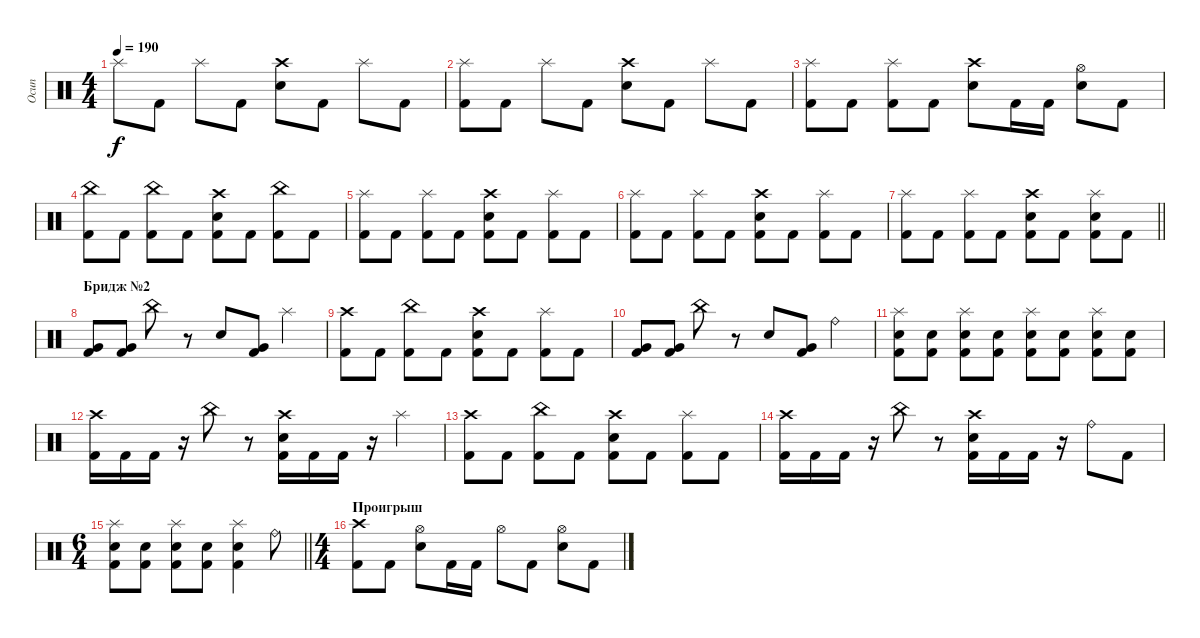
\track ("Осип" "Осип") {instrument percussion}
\staff {score}
\articulation defaults
\ts (4 4)
\tempo 190
\clef neutral
\ks c "Splash (hit)".8{dy f} "Kick (hit) 2".8 "Splash (hit)".8 "Kick (hit) 2".8
("Electric Snare (hit)" "Crash high (hit)").8 "Kick (hit) 2".8 "Splash (hit)".8 "Kick (hit) 2".8 |
("Kick (hit) 2" "Splash (hit)").8 "Kick (hit) 2".8 "Splash (hit)".8 "Kick (hit) 2".8 ("Electric Snare (hit)" "Crash high (hit)").8 "Kick (hit) 2".8 "Splash (hit)".8 "Kick (hit) 2".8 |
("Kick (hit) 2" "Splash (hit)").8 "Kick (hit) 2".8 ("Kick (hit) 2" "Splash (hit)").8 "Kick (hit) 2".8 ("Electric Snare (hit)" "Crash high (hit)").8 "Kick (hit) 2".16 "Kick (hit) 2".16 ("Electric Snare (hit)" "Hi-Hat (open)").8 "Kick (hit) 2".8 |
("Kick (hit) 2" "China (hit)").8 "Kick (hit) 2".8 ("Kick (hit) 2" "China (hit)").8 "Kick (hit) 2".8 ("Kick (hit) 2" "Electric Snare (hit)" "Crash high (hit)").8 "Kick (hit) 2".8 ("Kick (hit) 2" "China (hit)").8 "Kick (hit) 2".8 |
("Kick (hit) 2" "Splash (hit)").8 "Kick (hit) 2".8 ("Kick (hit) 2" "Splash (hit)").8 "Kick (hit) 2".8 ("Kick (hit) 2" "Electric Snare (hit)" "Crash high (hit)").8 "Kick (hit) 2".8 ("Kick (hit) 2" "Splash (hit)").8 "Kick (hit) 2".8 |
("Kick (hit) 2" "Splash (hit)").8 "Kick (hit) 2".8 ("Kick (hit) 2" "Splash (hit)").8 "Kick (hit) 2".8 ("Kick (hit) 2" "Electric Snare (hit)" "Crash high (hit)").8 "Kick (hit) 2".8 ("Kick (hit) 2" "Splash (hit)").8 "Kick (hit) 2".8 |
\barLineRight lightlight
("Kick (hit) 2" "Splash (hit)").8 "Kick (hit) 2".8 ("Kick (hit) 2" "Splash (hit)").8 "Kick (hit) 2".8 ("Kick (hit) 2" "Electric Snare (hit)" "Crash high (hit)").8 "Kick (hit) 2".8 ("Kick (hit) 2" "Electric Snare (hit)" "Splash (hit)").8 "Kick (hit) 2".8 |
\section ("" "Бридж №2")
("Kick (hit) 2" "Very Low Tom (hit)").8 ("Kick (hit) 2" "Very Low Tom (hit)").8 "China (hit)".8 r.8 "Electric Snare (hit)".8 ("Kick (hit) 2" "Very Low Tom (hit)").8 "Splash (hit)".4 |
("Kick (hit) 2" "Crash high (hit)").8 "Kick (hit) 2".8 ("Kick (hit) 2" "China (hit)").8 "Kick (hit) 2".8 ("Kick (hit) 2" "Electric Snare (hit)" "Crash high (hit)").8 "Kick (hit) 2".8 ("Kick (hit) 2" "Splash (hit)").8 "Kick (hit) 2".8 |
("Kick (hit) 2" "Very Low Tom (hit)").8 ("Kick (hit) 2" "Very Low Tom (hit)").8 "China (hit)".8 r.8 "Electric Snare (hit)".8 ("Kick (hit) 2" "Very Low Tom (hit)").8 "Ride (bell)".4 |
("Kick (hit) 2" "Electric Snare (hit)" "Splash (hit)").8 ("Kick (hit) 2" "Electric Snare (hit)").8 ("Kick (hit) 2" "Electric Snare (hit)" "Splash (hit)").8 ("Kick (hit) 2" "Electric Snare (hit)").8 ("Kick (hit) 2" "Electric Snare (hit)" "Splash (hit)").8 ("Kick (hit) 2" "Electric Snare (hit)").8 ("Kick (hit) 2" "Electric Snare (hit)" "Splash (hit)").8 ("Kick (hit) 2" "Electric Snare (hit)").8 |
("Kick (hit) 2" "Crash high (hit)").16 "Kick (hit) 2".16 "Kick (hit) 2".16 r.16 "China (hit)".8 r.8 ("Electric Snare (hit)" "Kick (hit) 2" "Crash high (hit)").16 "Kick (hit) 2".16 "Kick (hit) 2".16 r.16 "Splash (hit)".4 |
("Kick (hit) 2" "Crash high (hit)").8 "Kick (hit) 2".8 ("Kick (hit) 2" "China (hit)").8 "Kick (hit) 2".8 ("Kick (hit) 2" "Electric Snare (hit)" "Crash high (hit)").8 "Kick (hit) 2".8 ("Kick (hit) 2" "Splash (hit)").8 "Kick (hit) 2".8 |
("Kick (hit) 2" "Crash high (hit)").16 "Kick (hit) 2".16 "Kick (hit) 2".16 r.16 "China (hit)".8 r.8 ("Electric Snare (hit)" "Kick (hit) 2" "Crash high (hit)").16 "Kick (hit) 2".16 "Kick (hit) 2".16 r.16 "Ride (bell)".8 "Kick (hit) 2".8 |
\ts (6 4)
\barLineRight lightlight
("Kick (hit) 2" "Electric Snare (hit)" "Splash (hit)").8 ("Kick (hit) 2" "Electric Snare (hit)").8 ("Kick (hit) 2" "Electric Snare (hit)" "Splash (hit)").8 ("Kick (hit) 2" "Electric Snare (hit)").8 ("Kick (hit) 2" "Electric Snare (hit)" "Splash (hit)").4 "Ride (bell)".8 |
\ts (4 4)
\section ("" "Проигрыш")
("Kick (hit) 2" "Crash high (hit)").8 "Kick (hit) 2".8 ("Electric Snare (hit)" "Hi-Hat (open)").8 "Kick (hit) 2".16 "Kick (hit) 2".16 "Hi-Hat (open)".8 "Kick (hit) 2".8 ("Electric Snare (hit)" "Hi-Hat (open)").8 "Kick (hit) 2".8
